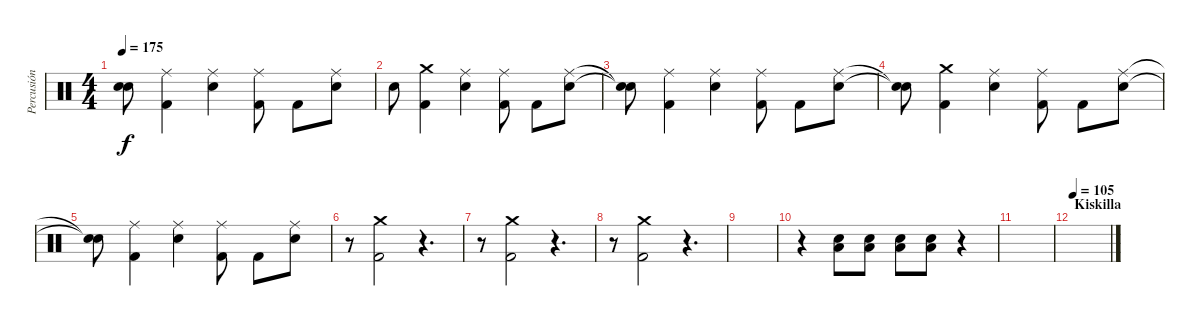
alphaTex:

\track ("Percusión" "Percusión") {instrument percussion}
\staff {score}
\articulation defaults
\ts (4 4)
\tempo 175
\clef neutral
\ks c
("Snare (hit)"{t} "Snare (hit) 2"{t}).8{dy f} ("Ride (middle)" "Kick (hit) 2").4 ("Snare (hit) 2" "Ride (middle)").4 ("Ride (middle)" "Kick (hit) 2").8 "Kick (hit) 2".8 ("Ride (middle)" "Snare (hit) 2").8 |
"Snare (hit) 2".8 ("Crash medium (hit)" "Kick (hit) 2").4 ("Snare (hit) 2" "Ride (middle)").4 ("Ride (middle)" "Kick (hit) 2").8 "Kick (hit) 2".8 ("Ride (middle)" "Snare (hit) 2").8 |
("Snare (hit)"{t} "Snare (hit) 2"{t}).8 ("Ride (middle)" "Kick (hit) 2").4 ("Snare (hit) 2" "Ride (middle)").4 ("Ride (middle)" "Kick (hit) 2").8 "Kick (hit) 2".8 ("Ride (middle)" "Snare (hit) 2").8 |
("Snare (hit)"{t} "Snare (hit) 2"{t}).8 ("Crash medium (hit)" "Kick (hit) 2").4 ("Snare (hit) 2" "Ride (middle)").4 ("Ride (middle)" "Kick (hit) 2").8 "Kick (hit) 2".8 ("Ride (middle)" "Snare (hit) 2").8 |
("Snare (hit)"{t} "Snare (hit) 2"{t}).8 ("Ride (middle)" "Kick (hit) 2").4 ("Snare (hit) 2" "Ride (middle)").4 ("Ride (middle)" "Kick (hit) 2").8 "Kick (hit) 2".8 ("Ride (middle)" "Snare (hit) 2").8 |
r.8 ("Crash medium (hit)" "Kick (hit) 2").2 r.4{d} |
r.8 ("Crash medium (hit)" "Kick (hit) 2").2 r.4{d} |
r.8 ("Crash medium (hit)" "Kick (hit) 2").2 r.4{d} |
|
r.4 ("Low Floor Tom (hit)" "Snare (hit) 2").8 ("Low Floor Tom (hit)" "Snare (hit) 2").8 ("Low Floor Tom (hit)" "Snare (hit) 2").8 ("Low Floor Tom (hit)" "Snare (hit) 2").8 r.4 |
|
\section ("" "Kiskilla")
\tempo 105
